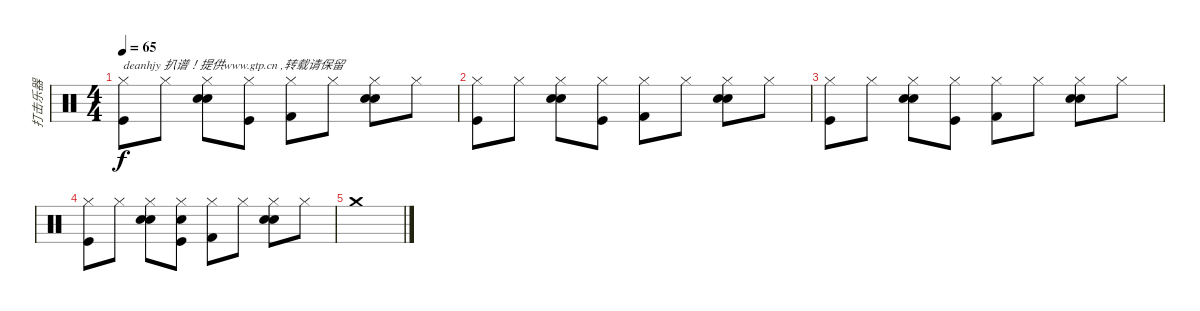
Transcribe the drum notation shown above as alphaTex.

\track ("打击乐器" "打击乐器") {instrument percussion}
\staff {score}
\articulation defaults
\ts (4 4)
\tempo 65
\clef neutral
\ks c
("Hi-Hat (closed)" "Kick (hit)").8{txt "deanhjy 扒谱！提供www.gtp.cn ,转载请保留" dy f} "Hi-Hat (closed)".8 ("Hi-Hat (closed)" "Electric Snare (hit)" "Hand Clap (hit)").8 ("Hi-Hat (closed)" "Kick (hit)").8 ("Hi-Hat (closed)" "Kick (hit) 2").8 "Hi-Hat (closed)".8 ("Hi-Hat (closed)" "Electric Snare (hit)" "Hand Clap (hit)").8 "Hi-Hat (closed)".8 |
("Hi-Hat (closed)" "Kick (hit)").8 "Hi-Hat (closed)".8 ("Hi-Hat (closed)" "Electric Snare (hit)" "Hand Clap (hit)").8 ("Hi-Hat (closed)" "Kick (hit)").8 ("Hi-Hat (closed)" "Kick (hit) 2").8 "Hi-Hat (closed)".8 ("Hi-Hat (closed)" "Electric Snare (hit)" "Hand Clap (hit)").8 "Hi-Hat (closed)".8 |
("Hi-Hat (closed)" "Kick (hit)").8 "Hi-Hat (closed)".8 ("Hi-Hat (closed)" "Electric Snare (hit)" "Hand Clap (hit)").8 ("Hi-Hat (closed)" "Kick (hit)").8 ("Hi-Hat (closed)" "Kick (hit) 2").8 "Hi-Hat (closed)".8 ("Hi-Hat (closed)" "Electric Snare (hit)" "Hand Clap (hit)").8 "Hi-Hat (closed)".8 |
("Hi-Hat (closed)" "Kick (hit)").8 "Hi-Hat (closed)".8 ("Hi-Hat (closed)" "Electric Snare (hit)" "Hand Clap (hit)").8 ("Hi-Hat (closed)" "Electric Snare (hit)" "Kick (hit)").8 ("Hi-Hat (closed)" "Kick (hit) 2").8 "Hi-Hat (closed)".8 ("Hi-Hat (closed)" "Electric Snare (hit)" "Hand Clap (hit)").8 "Hi-Hat (closed)".8 |
"Crash medium (hit)".1
